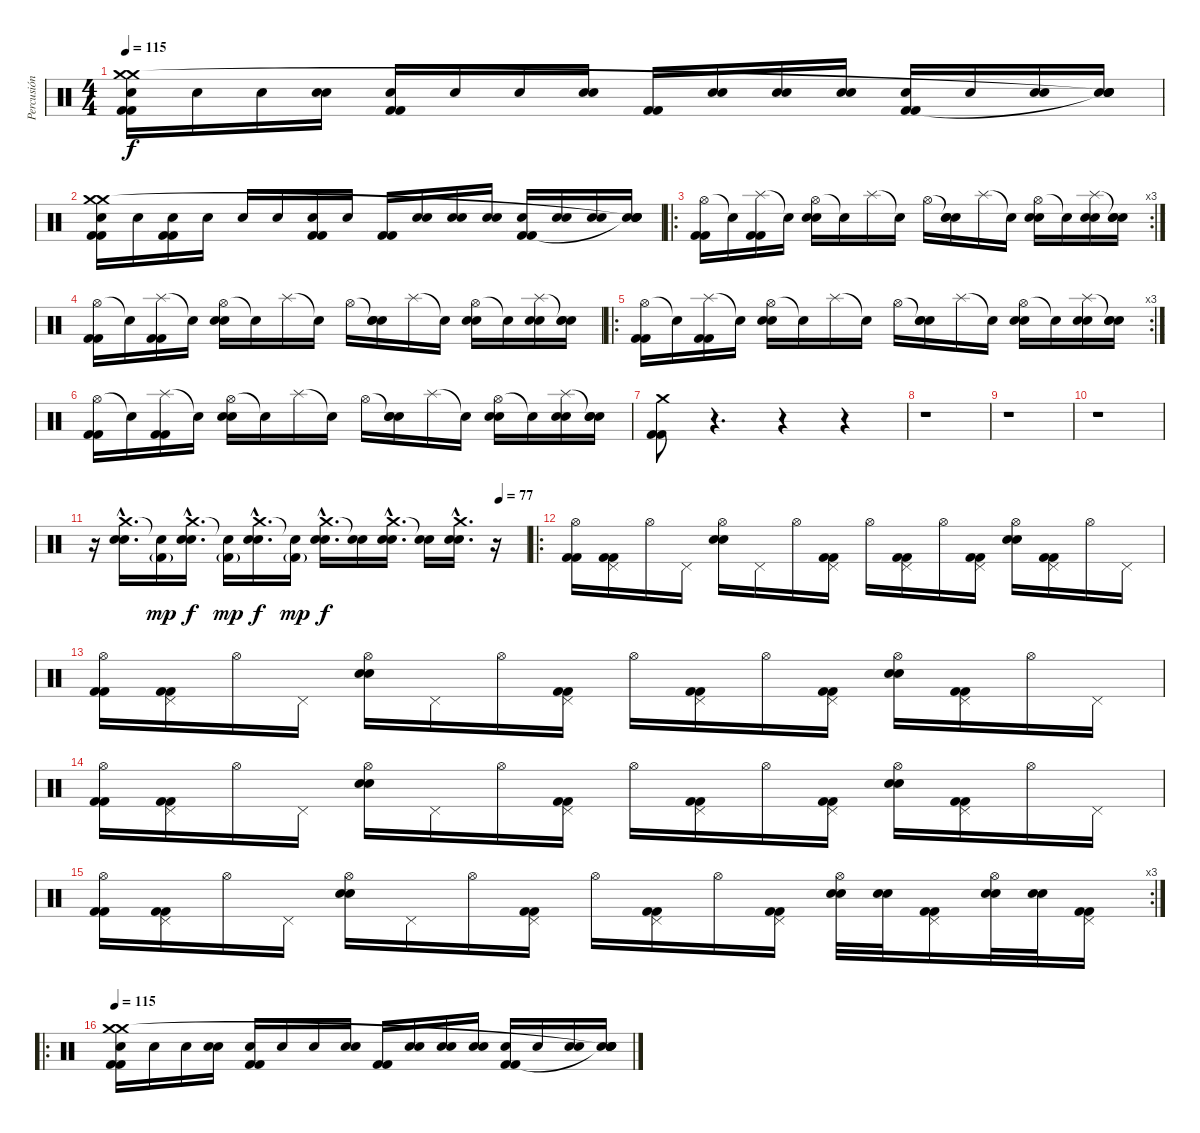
\track ("Percusión" "Percusión") {instrument percussion}
\staff {score}
\articulation defaults
\ts (4 4)
\tempo 115
\clef neutral
\ks c
("Electric Snare (hit)" "Kick (hit) 2" "Kick (hit) 2" "Crash medium (hit)" "Crash medium (hit)").16{dy f} "Snare (hit)".16 "Snare (hit)".16 ("Electric Snare (hit)" "Snare (hit)").16 ("Electric Snare (hit)" "Kick (hit) 2" "Kick (hit) 2").16 "Snare (hit)".16 "Snare (hit)".16 ("Electric Snare (hit)" "Snare (hit)").16 ("Kick (hit) 2" "Kick (hit) 2").16 ("Electric Snare (hit)" "Snare (hit)").16 ("Electric Snare (hit)" "Snare (hit)").16 ("Electric Snare (hit)" "Snare (hit)").16 ("Electric Snare (hit)" "Kick (hit) 2" "Kick (hit) 2").16 "Snare (hit)".16 ("Electric Snare (hit)" "Snare (hit)").16 ("Electric Snare (hit)" "Snare (hit)" "Snare (hit)"{t} "Snare (hit)"{t}).16 |
("Electric Snare (hit)" "Kick (hit) 2" "Kick (hit) 2" "Crash medium (hit)" "Crash medium (hit)").16 "Snare (hit)".16 ("Electric Snare (hit)" "Kick (hit) 2" "Kick (hit) 2").16 "Snare (hit)".16 "Snare (hit)".16 "Snare (hit)".16 ("Electric Snare (hit)" "Kick (hit) 2" "Kick (hit) 2").16 "Snare (hit)".16 ("Kick (hit) 2" "Kick (hit) 2").16 ("Electric Snare (hit)" "Snare (hit)").16 ("Electric Snare (hit)" "Snare (hit)").16 ("Electric Snare (hit)" "Snare (hit)").16 ("Electric Snare (hit)" "Kick (hit) 2" "Kick (hit) 2").16 ("Electric Snare (hit)" "Snare (hit)").16 ("Electric Snare (hit)" "Snare (hit)").16 ("Electric Snare (hit)" "Snare (hit)" "Snare (hit)"{t} "Snare (hit)"{t}).16 |
\ro
\rc 3
("Hi-Hat (open)" "Kick (hit) 2" "Kick (hit) 2").16 "Snare (hit)"{t}.16 ("Splash (hit)" "Kick (hit) 2" "Kick (hit) 2").16 "Snare (hit)"{t}.16 ("Hi-Hat (open)" "Electric Snare (hit)" "Electric Snare (hit)").16 "Snare (hit)"{t}.16 "Splash (hit)".16 "Snare (hit)"{t}.16 "Hi-Hat (open)".16 ("Snare (hit)"{t} "Electric Snare (hit)" "Electric Snare (hit)").16 "Splash (hit)".16 "Snare (hit)"{t}.16 ("Hi-Hat (open)" "Electric Snare (hit)" "Electric Snare (hit)").16 "Snare (hit)"{t}.16 ("Splash (hit)" "Electric Snare (hit)" "Electric Snare (hit)").16 ("Snare (hit)"{t} "Electric Snare (hit)" "Electric Snare (hit)").16 |
("Hi-Hat (open)" "Kick (hit) 2" "Kick (hit) 2").16 "Snare (hit)"{t}.16 ("Splash (hit)" "Kick (hit) 2" "Kick (hit) 2").16 "Snare (hit)"{t}.16 ("Hi-Hat (open)" "Electric Snare (hit)" "Electric Snare (hit)").16 "Snare (hit)"{t}.16 "Splash (hit)".16 "Snare (hit)"{t}.16 "Hi-Hat (open)".16 ("Snare (hit)"{t} "Electric Snare (hit)" "Electric Snare (hit)").16 "Splash (hit)".16 "Snare (hit)"{t}.16 ("Hi-Hat (open)" "Electric Snare (hit)" "Electric Snare (hit)").16 "Snare (hit)"{t}.16 ("Splash (hit)" "Electric Snare (hit)" "Electric Snare (hit)").16 ("Snare (hit)"{t} "Electric Snare (hit)" "Electric Snare (hit)").16 |
\ro
\rc 3
("Hi-Hat (open)" "Kick (hit) 2" "Kick (hit) 2").16 "Snare (hit)"{t}.16 ("Splash (hit)" "Kick (hit) 2" "Kick (hit) 2").16 "Snare (hit)"{t}.16 ("Hi-Hat (open)" "Electric Snare (hit)" "Electric Snare (hit)").16 "Snare (hit)"{t}.16 "Splash (hit)".16 "Snare (hit)"{t}.16 "Hi-Hat (open)".16 ("Snare (hit)"{t} "Electric Snare (hit)" "Electric Snare (hit)").16 "Splash (hit)".16 "Snare (hit)"{t}.16 ("Hi-Hat (open)" "Electric Snare (hit)" "Electric Snare (hit)").16 "Snare (hit)"{t}.16 ("Splash (hit)" "Electric Snare (hit)" "Electric Snare (hit)").16 ("Snare (hit)"{t} "Electric Snare (hit)" "Electric Snare (hit)").16 |
("Hi-Hat (open)" "Kick (hit) 2" "Kick (hit) 2").16 "Snare (hit)"{t}.16 ("Splash (hit)" "Kick (hit) 2" "Kick (hit) 2").16 "Snare (hit)"{t}.16 ("Hi-Hat (open)" "Electric Snare (hit)" "Electric Snare (hit)").16 "Snare (hit)"{t}.16 "Splash (hit)".16 "Snare (hit)"{t}.16 "Hi-Hat (open)".16 ("Snare (hit)"{t} "Electric Snare (hit)" "Electric Snare (hit)").16 "Splash (hit)".16 "Snare (hit)"{t}.16 ("Hi-Hat (open)" "Electric Snare (hit)" "Electric Snare (hit)").16 "Snare (hit)"{t}.16 ("Splash (hit)" "Electric Snare (hit)" "Electric Snare (hit)").16 ("Snare (hit)"{t} "Electric Snare (hit)" "Electric Snare (hit)").16 |
("Crash medium (hit)" "Kick (hit) 2" "Kick (hit) 2").8 r.4{d} r.4 r.4 |
r.1 |
r.1 |
r.1 |
\tempo (77 0.9375)
r.16 ("Crash medium (hit)"{hac} "Electric Snare (hit)"{hac} "Electric Snare (hit)"{hac}).16{d} ("Snare (hit)"{t} "Kick (hit) 2"{g}).16{dy mp} ("Crash medium (hit)"{hac} "Electric Snare (hit)"{hac} "Electric Snare (hit)"{hac}).16{d dy f} ("Snare (hit)"{t} "Kick (hit) 2"{g}).16{dy mp} ("Crash medium (hit)"{hac} "Electric Snare (hit)"{hac} "Electric Snare (hit)"{hac}).16{d dy f} ("Snare (hit)"{t} "Kick (hit) 2"{g}).16{dy mp} ("Crash medium (hit)"{hac} "Electric Snare (hit)"{hac} "Electric Snare (hit)"{hac}).16{d dy f} ("Snare (hit)"{t} "Snare (hit)").16 ("Crash medium (hit)"{hac} "Electric Snare (hit)"{hac} "Electric Snare (hit)"{hac}).16{d} ("Snare (hit)"{t} "Snare (hit)").16 ("Crash medium (hit)"{hac} "Electric Snare (hit)"{hac} "Electric Snare (hit)"{hac}).16{d} r.16 |
\ro
("Hi-Hat (open)" "Kick (hit) 2" "Kick (hit) 2").16 ("Pedal Hi-Hat (hit)" "Kick (hit) 2" "Kick (hit) 2").16 "Hi-Hat (open)".16 "Pedal Hi-Hat (hit)".16 ("Hi-Hat (open)" "Electric Snare (hit)" "Electric Snare (hit)").16 "Pedal Hi-Hat (hit)".16 "Hi-Hat (open)".16 ("Pedal Hi-Hat (hit)" "Kick (hit) 2" "Kick (hit) 2").16 "Hi-Hat (open)".16 ("Pedal Hi-Hat (hit)" "Kick (hit) 2" "Kick (hit) 2").16 "Hi-Hat (open)".16 ("Pedal Hi-Hat (hit)" "Kick (hit) 2" "Kick (hit) 2").16 ("Hi-Hat (open)" "Electric Snare (hit)" "Electric Snare (hit)").16 ("Pedal Hi-Hat (hit)" "Kick (hit) 2" "Kick (hit) 2").16 "Hi-Hat (open)".16 "Pedal Hi-Hat (hit)".16 |
("Hi-Hat (open)" "Kick (hit) 2" "Kick (hit) 2").16 ("Pedal Hi-Hat (hit)" "Kick (hit) 2" "Kick (hit) 2").16 "Hi-Hat (open)".16 "Pedal Hi-Hat (hit)".16 ("Hi-Hat (open)" "Electric Snare (hit)" "Electric Snare (hit)").16 "Pedal Hi-Hat (hit)".16 "Hi-Hat (open)".16 ("Pedal Hi-Hat (hit)" "Kick (hit) 2" "Kick (hit) 2").16 "Hi-Hat (open)".16 ("Pedal Hi-Hat (hit)" "Kick (hit) 2" "Kick (hit) 2").16 "Hi-Hat (open)".16 ("Pedal Hi-Hat (hit)" "Kick (hit) 2" "Kick (hit) 2").16 ("Hi-Hat (open)" "Electric Snare (hit)" "Electric Snare (hit)").16 ("Pedal Hi-Hat (hit)" "Kick (hit) 2" "Kick (hit) 2").16 "Hi-Hat (open)".16 "Pedal Hi-Hat (hit)".16 |
("Hi-Hat (open)" "Kick (hit) 2" "Kick (hit) 2").16 ("Pedal Hi-Hat (hit)" "Kick (hit) 2" "Kick (hit) 2").16 "Hi-Hat (open)".16 "Pedal Hi-Hat (hit)".16 ("Hi-Hat (open)" "Electric Snare (hit)" "Electric Snare (hit)").16 "Pedal Hi-Hat (hit)".16 "Hi-Hat (open)".16 ("Pedal Hi-Hat (hit)" "Kick (hit) 2" "Kick (hit) 2").16 "Hi-Hat (open)".16 ("Pedal Hi-Hat (hit)" "Kick (hit) 2" "Kick (hit) 2").16 "Hi-Hat (open)".16 ("Pedal Hi-Hat (hit)" "Kick (hit) 2" "Kick (hit) 2").16 ("Hi-Hat (open)" "Electric Snare (hit)" "Electric Snare (hit)").16 ("Pedal Hi-Hat (hit)" "Kick (hit) 2" "Kick (hit) 2").16 "Hi-Hat (open)".16 "Pedal Hi-Hat (hit)".16 |
\rc 3
("Hi-Hat (open)" "Kick (hit) 2" "Kick (hit) 2").16 ("Pedal Hi-Hat (hit)" "Kick (hit) 2" "Kick (hit) 2").16 "Hi-Hat (open)".16 "Pedal Hi-Hat (hit)".16 ("Hi-Hat (open)" "Electric Snare (hit)" "Electric Snare (hit)").16 "Pedal Hi-Hat (hit)".16 "Hi-Hat (open)".16 ("Pedal Hi-Hat (hit)" "Kick (hit) 2" "Kick (hit) 2").16 "Hi-Hat (open)".16 ("Pedal Hi-Hat (hit)" "Kick (hit) 2" "Kick (hit) 2").16 "Hi-Hat (open)".16 ("Pedal Hi-Hat (hit)" "Kick (hit) 2" "Kick (hit) 2").16 ("Hi-Hat (open)" "Electric Snare (hit)" "Electric Snare (hit)").32 ("Electric Snare (hit)" "Electric Snare (hit)").32 ("Pedal Hi-Hat (hit)" "Kick (hit) 2" "Kick (hit) 2").16 ("Hi-Hat (open)" "Electric Snare (hit)" "Electric Snare (hit)").32 ("Electric Snare (hit)" "Electric Snare (hit)").32 ("Pedal Hi-Hat (hit)" "Kick (hit) 2" "Kick (hit) 2").16 |
\ro
\tempo 115
("Electric Snare (hit)" "Kick (hit) 2" "Kick (hit) 2" "Crash medium (hit)" "Crash medium (hit)").16 "Snare (hit)".16 "Snare (hit)".16 ("Electric Snare (hit)" "Snare (hit)").16 ("Electric Snare (hit)" "Kick (hit) 2" "Kick (hit) 2").16 "Snare (hit)".16 "Snare (hit)".16 ("Electric Snare (hit)" "Snare (hit)").16 ("Kick (hit) 2" "Kick (hit) 2").16 ("Electric Snare (hit)" "Snare (hit)").16 ("Electric Snare (hit)" "Snare (hit)").16 ("Electric Snare (hit)" "Snare (hit)").16 ("Electric Snare (hit)" "Kick (hit) 2" "Kick (hit) 2").16 "Snare (hit)".16 ("Electric Snare (hit)" "Snare (hit)").16 ("Electric Snare (hit)" "Snare (hit)" "Snare (hit)"{t} "Snare (hit)"{t}).16
